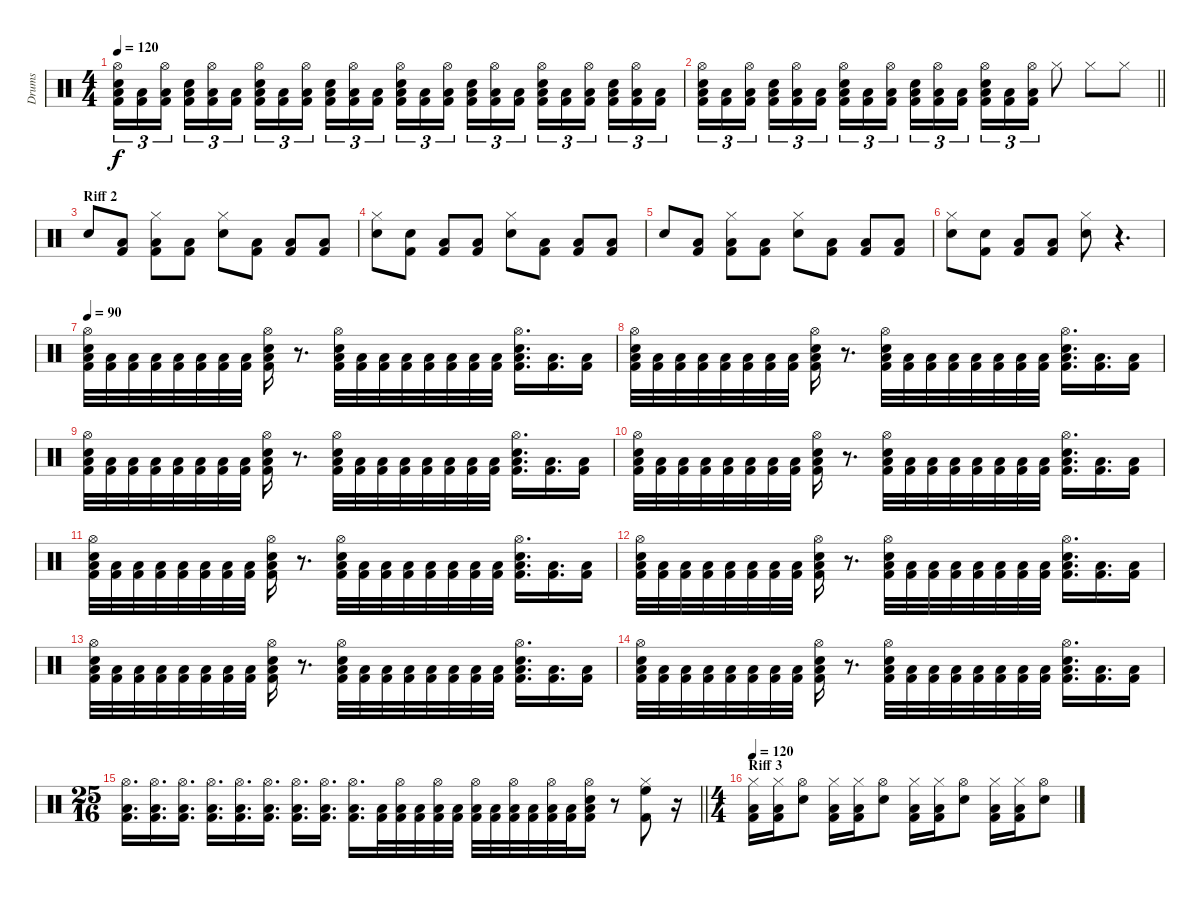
\track ("Drums" "Drums") {instrument percussion}
\staff {score}
\articulation defaults
\ts (4 4)
\tempo 120
\clef neutral
\ks c
("Hi-Hat (open)" "Low Floor Tom (hit)" "Snare (hit) 2" "Kick (hit) 2").16{tu (3 2) dy f} ("Low Floor Tom (hit)" "Kick (hit) 2").16{tu (3 2)} ("Hi-Hat (open)" "Low Floor Tom (hit)" "Kick (hit) 2").16{tu (3 2) beam splitsecondary} ("Low Floor Tom (hit)" "Snare (hit) 2" "Kick (hit) 2").16{tu (3 2)} ("Hi-Hat (open)" "Low Floor Tom (hit)" "Kick (hit) 2").16{tu (3 2)} ("Low Floor Tom (hit)" "Kick (hit) 2").16{tu (3 2)} ("Hi-Hat (open)" "Low Floor Tom (hit)" "Snare (hit) 2" "Kick (hit) 2").16{tu (3 2)} ("Low Floor Tom (hit)" "Kick (hit) 2").16{tu (3 2)} ("Hi-Hat (open)" "Low Floor Tom (hit)" "Kick (hit) 2").16{tu (3 2) beam splitsecondary} ("Low Floor Tom (hit)" "Snare (hit) 2" "Kick (hit) 2").16{tu (3 2)} ("Hi-Hat (open)" "Low Floor Tom (hit)" "Kick (hit) 2").16{tu (3 2)} ("Low Floor Tom (hit)" "Kick (hit) 2").16{tu (3 2)} ("Hi-Hat (open)" "Low Floor Tom (hit)" "Snare (hit) 2" "Kick (hit) 2").16{tu (3 2)} ("Low Floor Tom (hit)" "Kick (hit) 2").16{tu (3 2)} ("Hi-Hat (open)" "Low Floor Tom (hit)" "Kick (hit) 2").16{tu (3 2) beam splitsecondary} ("Low Floor Tom (hit)" "Snare (hit) 2" "Kick (hit) 2").16{tu (3 2)} ("Hi-Hat (open)" "Low Floor Tom (hit)" "Kick (hit) 2").16{tu (3 2)} ("Low Floor Tom (hit)" "Kick (hit) 2").16{tu (3 2)} ("Hi-Hat (open)" "Low Floor Tom (hit)" "Snare (hit) 2" "Kick (hit) 2").16{tu (3 2)} ("Low Floor Tom (hit)" "Kick (hit) 2").16{tu (3 2)} ("Hi-Hat (open)" "Low Floor Tom (hit)" "Kick (hit) 2").16{tu (3 2) beam splitsecondary} ("Low Floor Tom (hit)" "Snare (hit) 2" "Kick (hit) 2").16{tu (3 2)} ("Hi-Hat (open)" "Low Floor Tom (hit)" "Kick (hit) 2").16{tu (3 2)} ("Low Floor Tom (hit)" "Kick (hit) 2").16{tu (3 2)} |
\barLineRight lightlight
("Hi-Hat (open)" "Low Floor Tom (hit)" "Snare (hit) 2" "Kick (hit) 2").16{tu (3 2)} ("Low Floor Tom (hit)" "Kick (hit) 2").16{tu (3 2)} ("Hi-Hat (open)" "Low Floor Tom (hit)" "Kick (hit) 2").16{tu (3 2) beam splitsecondary} ("Low Floor Tom (hit)" "Snare (hit) 2" "Kick (hit) 2").16{tu (3 2)} ("Hi-Hat (open)" "Low Floor Tom (hit)" "Kick (hit) 2").16{tu (3 2)} ("Low Floor Tom (hit)" "Kick (hit) 2").16{tu (3 2)} ("Hi-Hat (open)" "Low Floor Tom (hit)" "Snare (hit) 2" "Kick (hit) 2").16{tu (3 2)} ("Low Floor Tom (hit)" "Kick (hit) 2").16{tu (3 2)} ("Hi-Hat (open)" "Low Floor Tom (hit)" "Kick (hit) 2").16{tu (3 2) beam splitsecondary} ("Low Floor Tom (hit)" "Snare (hit) 2" "Kick (hit) 2").16{tu (3 2)} ("Hi-Hat (open)" "Low Floor Tom (hit)" "Kick (hit) 2").16{tu (3 2)} ("Low Floor Tom (hit)" "Kick (hit) 2").16{tu (3 2)} ("Hi-Hat (open)" "Low Floor Tom (hit)" "Snare (hit) 2" "Kick (hit) 2").16{tu (3 2)} ("Low Floor Tom (hit)" "Kick (hit) 2").16{tu (3 2)} ("Hi-Hat (open)" "Low Floor Tom (hit)" "Kick (hit) 2").16{tu (3 2)} "Hi-Hat (closed)".8 "Hi-Hat (closed)".8 "Hi-Hat (closed)".8 |
\section ("" "Riff 2")
"Snare (hit) 2".8 ("Low Floor Tom (hit)" "Kick (hit) 2").8 ("Hi-Hat (closed)" "Low Floor Tom (hit)" "Kick (hit) 2").8 ("Low Floor Tom (hit)" "Kick (hit) 2").8 ("Hi-Hat (closed)" "Snare (hit) 2").8 ("Low Floor Tom (hit)" "Kick (hit) 2").8 ("Low Floor Tom (hit)" "Kick (hit) 2").8 ("Low Floor Tom (hit)" "Kick (hit) 2").8 |
("Hi-Hat (closed)" "Snare (hit) 2").8 ("Snare (hit)" "Kick (hit) 2").8 ("Low Floor Tom (hit)" "Kick (hit) 2").8 ("Low Floor Tom (hit)" "Kick (hit) 2").8 ("Hi-Hat (closed)" "Snare (hit) 2").8 ("Low Floor Tom (hit)" "Kick (hit) 2").8 ("Low Floor Tom (hit)" "Kick (hit) 2").8 ("Low Floor Tom (hit)" "Kick (hit) 2").8 |
"Snare (hit) 2".8 ("Low Floor Tom (hit)" "Kick (hit) 2").8 ("Hi-Hat (closed)" "Low Floor Tom (hit)" "Kick (hit) 2").8 ("Low Floor Tom (hit)" "Kick (hit) 2").8 ("Hi-Hat (closed)" "Snare (hit) 2").8 ("Low Floor Tom (hit)" "Kick (hit) 2").8 ("Low Floor Tom (hit)" "Kick (hit) 2").8 ("Low Floor Tom (hit)" "Kick (hit) 2").8 |
("Hi-Hat (closed)" "Snare (hit) 2").8 ("Snare (hit)" "Kick (hit) 2").8 ("Low Floor Tom (hit)" "Kick (hit) 2").8 ("Low Floor Tom (hit)" "Kick (hit) 2").8 ("Hi-Hat (closed)" "Snare (hit) 2").8 r.4{d} |
\tempo 90
("Hi-Hat (open)" "Low Floor Tom (hit)" "Snare (hit) 2" "Kick (hit) 2").32 ("Low Floor Tom (hit)" "Kick (hit) 2").32 ("Low Floor Tom (hit)" "Kick (hit) 2").32 ("Low Floor Tom (hit)" "Kick (hit) 2").32 ("Low Floor Tom (hit)" "Kick (hit) 2").32 ("Low Floor Tom (hit)" "Kick (hit) 2").32 ("Low Floor Tom (hit)" "Kick (hit) 2").32 ("Low Floor Tom (hit)" "Kick (hit) 2").32 ("Hi-Hat (open)" "Low Floor Tom (hit)" "Snare (hit) 2" "Kick (hit) 2").16 r.8{d} ("Hi-Hat (open)" "Low Floor Tom (hit)" "Snare (hit) 2" "Kick (hit) 2").32 ("Low Floor Tom (hit)" "Kick (hit) 2").32 ("Low Floor Tom (hit)" "Kick (hit) 2").32 ("Low Floor Tom (hit)" "Kick (hit) 2").32 ("Low Floor Tom (hit)" "Kick (hit) 2").32 ("Low Floor Tom (hit)" "Kick (hit) 2").32 ("Low Floor Tom (hit)" "Kick (hit) 2").32 ("Low Floor Tom (hit)" "Kick (hit) 2").32 ("Hi-Hat (open)" "Low Floor Tom (hit)" "Snare (hit) 2" "Kick (hit) 2").16{d} ("Low Floor Tom (hit)" "Kick (hit) 2").16{d} ("Low Floor Tom (hit)" "Kick (hit) 2").16 |
("Hi-Hat (open)" "Low Floor Tom (hit)" "Snare (hit) 2" "Kick (hit) 2").32 ("Low Floor Tom (hit)" "Kick (hit) 2").32 ("Low Floor Tom (hit)" "Kick (hit) 2").32 ("Low Floor Tom (hit)" "Kick (hit) 2").32 ("Low Floor Tom (hit)" "Kick (hit) 2").32 ("Low Floor Tom (hit)" "Kick (hit) 2").32 ("Low Floor Tom (hit)" "Kick (hit) 2").32 ("Low Floor Tom (hit)" "Kick (hit) 2").32 ("Hi-Hat (open)" "Low Floor Tom (hit)" "Snare (hit) 2" "Kick (hit) 2").16 r.8{d} ("Hi-Hat (open)" "Low Floor Tom (hit)" "Snare (hit) 2" "Kick (hit) 2").32 ("Low Floor Tom (hit)" "Kick (hit) 2").32 ("Low Floor Tom (hit)" "Kick (hit) 2").32 ("Low Floor Tom (hit)" "Kick (hit) 2").32 ("Low Floor Tom (hit)" "Kick (hit) 2").32 ("Low Floor Tom (hit)" "Kick (hit) 2").32 ("Low Floor Tom (hit)" "Kick (hit) 2").32 ("Low Floor Tom (hit)" "Kick (hit) 2").32 ("Hi-Hat (open)" "Low Floor Tom (hit)" "Snare (hit) 2" "Kick (hit) 2").16{d} ("Low Floor Tom (hit)" "Kick (hit) 2").16{d} ("Low Floor Tom (hit)" "Kick (hit) 2").16 |
("Hi-Hat (open)" "Low Floor Tom (hit)" "Snare (hit) 2" "Kick (hit) 2").32 ("Low Floor Tom (hit)" "Kick (hit) 2").32 ("Low Floor Tom (hit)" "Kick (hit) 2").32 ("Low Floor Tom (hit)" "Kick (hit) 2").32 ("Low Floor Tom (hit)" "Kick (hit) 2").32 ("Low Floor Tom (hit)" "Kick (hit) 2").32 ("Low Floor Tom (hit)" "Kick (hit) 2").32 ("Low Floor Tom (hit)" "Kick (hit) 2").32 ("Hi-Hat (open)" "Low Floor Tom (hit)" "Snare (hit) 2" "Kick (hit) 2").16 r.8{d} ("Hi-Hat (open)" "Low Floor Tom (hit)" "Snare (hit) 2" "Kick (hit) 2").32 ("Low Floor Tom (hit)" "Kick (hit) 2").32 ("Low Floor Tom (hit)" "Kick (hit) 2").32 ("Low Floor Tom (hit)" "Kick (hit) 2").32 ("Low Floor Tom (hit)" "Kick (hit) 2").32 ("Low Floor Tom (hit)" "Kick (hit) 2").32 ("Low Floor Tom (hit)" "Kick (hit) 2").32 ("Low Floor Tom (hit)" "Kick (hit) 2").32 ("Hi-Hat (open)" "Low Floor Tom (hit)" "Snare (hit) 2" "Kick (hit) 2").16{d} ("Low Floor Tom (hit)" "Kick (hit) 2").16{d} ("Low Floor Tom (hit)" "Kick (hit) 2").16 |
("Hi-Hat (open)" "Low Floor Tom (hit)" "Snare (hit) 2" "Kick (hit) 2").32 ("Low Floor Tom (hit)" "Kick (hit) 2").32 ("Low Floor Tom (hit)" "Kick (hit) 2").32 ("Low Floor Tom (hit)" "Kick (hit) 2").32 ("Low Floor Tom (hit)" "Kick (hit) 2").32 ("Low Floor Tom (hit)" "Kick (hit) 2").32 ("Low Floor Tom (hit)" "Kick (hit) 2").32 ("Low Floor Tom (hit)" "Kick (hit) 2").32 ("Hi-Hat (open)" "Low Floor Tom (hit)" "Snare (hit) 2" "Kick (hit) 2").16 r.8{d} ("Hi-Hat (open)" "Low Floor Tom (hit)" "Snare (hit) 2" "Kick (hit) 2").32 ("Low Floor Tom (hit)" "Kick (hit) 2").32 ("Low Floor Tom (hit)" "Kick (hit) 2").32 ("Low Floor Tom (hit)" "Kick (hit) 2").32 ("Low Floor Tom (hit)" "Kick (hit) 2").32 ("Low Floor Tom (hit)" "Kick (hit) 2").32 ("Low Floor Tom (hit)" "Kick (hit) 2").32 ("Low Floor Tom (hit)" "Kick (hit) 2").32 ("Hi-Hat (open)" "Low Floor Tom (hit)" "Snare (hit) 2" "Kick (hit) 2").16{d} ("Low Floor Tom (hit)" "Kick (hit) 2").16{d} ("Low Floor Tom (hit)" "Kick (hit) 2").16 |
("Hi-Hat (open)" "Low Floor Tom (hit)" "Snare (hit) 2" "Kick (hit) 2").32 ("Low Floor Tom (hit)" "Kick (hit) 2").32 ("Low Floor Tom (hit)" "Kick (hit) 2").32 ("Low Floor Tom (hit)" "Kick (hit) 2").32 ("Low Floor Tom (hit)" "Kick (hit) 2").32 ("Low Floor Tom (hit)" "Kick (hit) 2").32 ("Low Floor Tom (hit)" "Kick (hit) 2").32 ("Low Floor Tom (hit)" "Kick (hit) 2").32 ("Hi-Hat (open)" "Low Floor Tom (hit)" "Snare (hit) 2" "Kick (hit) 2").16 r.8{d} ("Hi-Hat (open)" "Low Floor Tom (hit)" "Snare (hit) 2" "Kick (hit) 2").32 ("Low Floor Tom (hit)" "Kick (hit) 2").32 ("Low Floor Tom (hit)" "Kick (hit) 2").32 ("Low Floor Tom (hit)" "Kick (hit) 2").32 ("Low Floor Tom (hit)" "Kick (hit) 2").32 ("Low Floor Tom (hit)" "Kick (hit) 2").32 ("Low Floor Tom (hit)" "Kick (hit) 2").32 ("Low Floor Tom (hit)" "Kick (hit) 2").32 ("Hi-Hat (open)" "Low Floor Tom (hit)" "Snare (hit) 2" "Kick (hit) 2").16{d} ("Low Floor Tom (hit)" "Kick (hit) 2").16{d} ("Low Floor Tom (hit)" "Kick (hit) 2").16 |
("Hi-Hat (open)" "Low Floor Tom (hit)" "Snare (hit) 2" "Kick (hit) 2").32 ("Low Floor Tom (hit)" "Kick (hit) 2").32 ("Low Floor Tom (hit)" "Kick (hit) 2").32 ("Low Floor Tom (hit)" "Kick (hit) 2").32 ("Low Floor Tom (hit)" "Kick (hit) 2").32 ("Low Floor Tom (hit)" "Kick (hit) 2").32 ("Low Floor Tom (hit)" "Kick (hit) 2").32 ("Low Floor Tom (hit)" "Kick (hit) 2").32 ("Hi-Hat (open)" "Low Floor Tom (hit)" "Snare (hit) 2" "Kick (hit) 2").16 r.8{d} ("Hi-Hat (open)" "Low Floor Tom (hit)" "Snare (hit) 2" "Kick (hit) 2").32 ("Low Floor Tom (hit)" "Kick (hit) 2").32 ("Low Floor Tom (hit)" "Kick (hit) 2").32 ("Low Floor Tom (hit)" "Kick (hit) 2").32 ("Low Floor Tom (hit)" "Kick (hit) 2").32 ("Low Floor Tom (hit)" "Kick (hit) 2").32 ("Low Floor Tom (hit)" "Kick (hit) 2").32 ("Low Floor Tom (hit)" "Kick (hit) 2").32 ("Hi-Hat (open)" "Low Floor Tom (hit)" "Snare (hit) 2" "Kick (hit) 2").16{d} ("Low Floor Tom (hit)" "Kick (hit) 2").16{d} ("Low Floor Tom (hit)" "Kick (hit) 2").16 |
("Hi-Hat (open)" "Low Floor Tom (hit)" "Snare (hit) 2" "Kick (hit) 2").32 ("Low Floor Tom (hit)" "Kick (hit) 2").32 ("Low Floor Tom (hit)" "Kick (hit) 2").32 ("Low Floor Tom (hit)" "Kick (hit) 2").32 ("Low Floor Tom (hit)" "Kick (hit) 2").32 ("Low Floor Tom (hit)" "Kick (hit) 2").32 ("Low Floor Tom (hit)" "Kick (hit) 2").32 ("Low Floor Tom (hit)" "Kick (hit) 2").32 ("Hi-Hat (open)" "Low Floor Tom (hit)" "Snare (hit) 2" "Kick (hit) 2").16 r.8{d} ("Hi-Hat (open)" "Low Floor Tom (hit)" "Snare (hit) 2" "Kick (hit) 2").32 ("Low Floor Tom (hit)" "Kick (hit) 2").32 ("Low Floor Tom (hit)" "Kick (hit) 2").32 ("Low Floor Tom (hit)" "Kick (hit) 2").32 ("Low Floor Tom (hit)" "Kick (hit) 2").32 ("Low Floor Tom (hit)" "Kick (hit) 2").32 ("Low Floor Tom (hit)" "Kick (hit) 2").32 ("Low Floor Tom (hit)" "Kick (hit) 2").32 ("Hi-Hat (open)" "Low Floor Tom (hit)" "Snare (hit) 2" "Kick (hit) 2").16{d} ("Low Floor Tom (hit)" "Kick (hit) 2").16{d} ("Low Floor Tom (hit)" "Kick (hit) 2").16 |
("Hi-Hat (open)" "Low Floor Tom (hit)" "Snare (hit) 2" "Kick (hit) 2").32 ("Low Floor Tom (hit)" "Kick (hit) 2").32 ("Low Floor Tom (hit)" "Kick (hit) 2").32 ("Low Floor Tom (hit)" "Kick (hit) 2").32 ("Low Floor Tom (hit)" "Kick (hit) 2").32 ("Low Floor Tom (hit)" "Kick (hit) 2").32 ("Low Floor Tom (hit)" "Kick (hit) 2").32 ("Low Floor Tom (hit)" "Kick (hit) 2").32 ("Hi-Hat (open)" "Low Floor Tom (hit)" "Snare (hit) 2" "Kick (hit) 2").16 r.8{d} ("Hi-Hat (open)" "Low Floor Tom (hit)" "Snare (hit) 2" "Kick (hit) 2").32 ("Low Floor Tom (hit)" "Kick (hit) 2").32 ("Low Floor Tom (hit)" "Kick (hit) 2").32 ("Low Floor Tom (hit)" "Kick (hit) 2").32 ("Low Floor Tom (hit)" "Kick (hit) 2").32 ("Low Floor Tom (hit)" "Kick (hit) 2").32 ("Low Floor Tom (hit)" "Kick (hit) 2").32 ("Low Floor Tom (hit)" "Kick (hit) 2").32 ("Hi-Hat (open)" "Low Floor Tom (hit)" "Snare (hit) 2" "Kick (hit) 2").16{d} ("Low Floor Tom (hit)" "Kick (hit) 2").16{d} ("Low Floor Tom (hit)" "Kick (hit) 2").16 |
\ts (25 16)
\barLineRight lightlight
("Hi-Hat (open)" "Low Floor Tom (hit)" "Kick (hit) 2").16{d} ("Hi-Hat (open)" "Low Floor Tom (hit)" "Kick (hit) 2").16{d} ("Hi-Hat (open)" "Low Floor Tom (hit)" "Kick (hit) 2").16{d} ("Hi-Hat (open)" "Low Floor Tom (hit)" "Kick (hit) 2").16{d} ("Hi-Hat (open)" "Low Floor Tom (hit)" "Kick (hit) 2").16{d} ("Hi-Hat (open)" "Low Floor Tom (hit)" "Kick (hit) 2").16{d} ("Hi-Hat (open)" "Low Floor Tom (hit)" "Kick (hit) 2").16{d} ("Hi-Hat (open)" "Low Floor Tom (hit)" "Kick (hit) 2").16{d} ("Hi-Hat (open)" "Low Floor Tom (hit)" "Kick (hit) 2").16{d} ("Low Floor Tom (hit)" "Kick (hit) 2").32 ("Hi-Hat (open)" "Low Floor Tom (hit)" "Kick (hit) 2").32 ("Low Floor Tom (hit)" "Kick (hit) 2").32 ("Hi-Hat (open)" "Low Floor Tom (hit)" "Kick (hit) 2").32 ("Low Floor Tom (hit)" "Kick (hit) 2").32 ("Hi-Hat (open)" "Low Floor Tom (hit)" "Kick (hit) 2").32 ("Low Floor Tom (hit)" "Kick (hit) 2").32 ("Hi-Hat (open)" "Low Floor Tom (hit)" "Kick (hit) 2").32 ("Low Floor Tom (hit)" "Kick (hit) 2").32 ("Hi-Hat (open)" "Low Floor Tom (hit)" "Kick (hit) 2").32 ("Low Floor Tom (hit)" "Kick (hit) 2").32 ("Hi-Hat (open)" "Low Floor Tom (hit)" "Snare (hit) 2" "Kick (hit) 2").16 r.8 ("Hi-Hat (closed)" "High Floor Tom (hit)" "Kick (hit) 2").8 r.16 |
\ts (4 4)
\section ("" "Riff 3")
\tempo 120
("Hi-Hat (closed)" "Low Floor Tom (hit)" "Kick (hit) 2").16 ("Hi-Hat (closed)" "Low Floor Tom (hit)" "Kick (hit) 2").16 ("Hi-Hat (open)" "Snare (hit) 2").8 ("Hi-Hat (closed)" "Low Floor Tom (hit)" "Kick (hit) 2").16 ("Hi-Hat (closed)" "Low Floor Tom (hit)" "Kick (hit) 2").16 ("Hi-Hat (open)" "Snare (hit) 2").8 ("Hi-Hat (closed)" "Low Floor Tom (hit)" "Kick (hit) 2").16 ("Hi-Hat (closed)" "Low Floor Tom (hit)" "Kick (hit) 2").16 ("Hi-Hat (open)" "Snare (hit) 2").8 ("Hi-Hat (closed)" "Low Floor Tom (hit)" "Kick (hit) 2").16 ("Hi-Hat (closed)" "Low Floor Tom (hit)" "Kick (hit) 2").16 ("Hi-Hat (open)" "Snare (hit) 2").8
